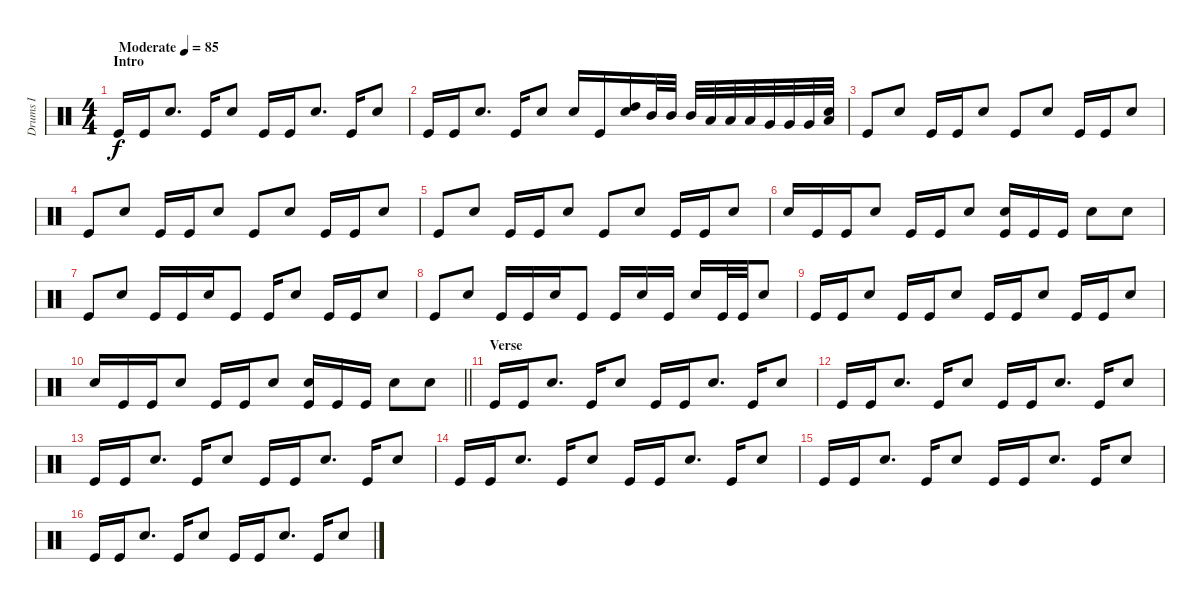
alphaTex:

\track ("Drums I" "Drums I") {instrument percussion}
\staff {score}
\articulation defaults
\ts (4 4)
\section ("" "Intro")
\tempo (85 "Moderate")
\clef neutral
\ks c "Kick (hit)".16{dy f} "Kick (hit)".16 "Electric Snare (hit)".8{d} "Kick (hit)".16 "Electric Snare (hit)".8 "Kick (hit)".16 "Kick (hit)".16 "Electric Snare (hit)".8{d} "Kick (hit)".16 "Electric Snare (hit)".8
|
"Kick (hit)".16 "Kick (hit)".16 "Electric Snare (hit)".8{d} "Kick (hit)".16 "Electric Snare (hit)".8 "Electric Snare (hit)".16 "Kick (hit)".16 ("Electric Snare (hit)" "High Tom (hit)").16 "Mid Tom (hit)".32 "Mid Tom (hit)".32 "Mid Tom (hit)".32 "Low Tom (hit)".32 "Low Tom (hit)".32 "Low Tom (hit)".32 "Very Low Tom (hit)".32 "Very Low Tom (hit)".32 "Very Low Tom (hit)".32 ("Electric Snare (hit)" "Low Tom (hit)").32 |
"Kick (hit)".8 "Electric Snare (hit)".8 "Kick (hit)".16 "Kick (hit)".16 "Electric Snare (hit)".8 "Kick (hit)".8 "Electric Snare (hit)".8 "Kick (hit)".16 "Kick (hit)".16 "Electric Snare (hit)".8 |
"Kick (hit)".8 "Electric Snare (hit)".8 "Kick (hit)".16 "Kick (hit)".16 "Electric Snare (hit)".8 "Kick (hit)".8 "Electric Snare (hit)".8 "Kick (hit)".16 "Kick (hit)".16 "Electric Snare (hit)".8 |
"Kick (hit)".8 "Electric Snare (hit)".8 "Kick (hit)".16 "Kick (hit)".16 "Electric Snare (hit)".8 "Kick (hit)".8 "Electric Snare (hit)".8 "Kick (hit)".16 "Kick (hit)".16 "Electric Snare (hit)".8 |
"Electric Snare (hit)".16 "Kick (hit)".16 "Kick (hit)".16 "Electric Snare (hit)".8 "Kick (hit)".16 "Kick (hit)".16 "Electric Snare (hit)".8 ("Electric Snare (hit)" "Kick (hit)").16 "Kick (hit)".16 "Kick (hit)".16 "Electric Snare (hit)".8 "Electric Snare (hit)".8 |
"Kick (hit)".8 "Electric Snare (hit)".8 "Kick (hit)".16 "Kick (hit)".16 "Electric Snare (hit)".16 "Kick (hit)".8 "Kick (hit)".16 "Electric Snare (hit)".8 "Kick (hit)".16 "Kick (hit)".16 "Electric Snare (hit)".8 |
"Kick (hit)".8 "Electric Snare (hit)".8 "Kick (hit)".16 "Kick (hit)".16 "Electric Snare (hit)".16 "Kick (hit)".8 "Kick (hit)".16 "Electric Snare (hit)".16 "Kick (hit)".16 "Electric Snare (hit)".16 "Kick (hit)".32 "Kick (hit)".32 "Electric Snare (hit)".8 |
"Kick (hit)".16 "Kick (hit)".16 "Electric Snare (hit)".8 "Kick (hit)".16 "Kick (hit)".16 "Electric Snare (hit)".8 "Kick (hit)".16 "Kick (hit)".16 "Electric Snare (hit)".8 "Kick (hit)".16 "Kick (hit)".16 "Electric Snare (hit)".8 |
\barLineRight lightlight "Electric Snare (hit)".16 "Kick (hit)".16 "Kick (hit)".16 "Electric Snare (hit)".8 "Kick (hit)".16 "Kick (hit)".16 "Electric Snare (hit)".8
("Electric Snare (hit)" "Kick (hit)").16 "Kick (hit)".16 "Kick (hit)".16 "Electric Snare (hit)".8 "Electric Snare (hit)".8 |
\section ("" "Verse")
"Kick (hit)".16 "Kick (hit)".16 "Electric Snare (hit)".8{d} "Kick (hit)".16 "Electric Snare (hit)".8 "Kick (hit)".16 "Kick (hit)".16 "Electric Snare (hit)".8{d} "Kick (hit)".16 "Electric Snare (hit)".8 |
"Kick (hit)".16 "Kick (hit)".16 "Electric Snare (hit)".8{d} "Kick (hit)".16 "Electric Snare (hit)".8 "Kick (hit)".16 "Kick (hit)".16 "Electric Snare (hit)".8{d} "Kick (hit)".16 "Electric Snare (hit)".8 |
"Kick (hit)".16 "Kick (hit)".16 "Electric Snare (hit)".8{d} "Kick (hit)".16 "Electric Snare (hit)".8 "Kick (hit)".16 "Kick (hit)".16 "Electric Snare (hit)".8{d} "Kick (hit)".16 "Electric Snare (hit)".8 |
"Kick (hit)".16 "Kick (hit)".16 "Electric Snare (hit)".8{d} "Kick (hit)".16 "Electric Snare (hit)".8 "Kick (hit)".16 "Kick (hit)".16 "Electric Snare (hit)".8{d} "Kick (hit)".16 "Electric Snare (hit)".8 |
"Kick (hit)".16 "Kick (hit)".16 "Electric Snare (hit)".8{d} "Kick (hit)".16 "Electric Snare (hit)".8 "Kick (hit)".16 "Kick (hit)".16 "Electric Snare (hit)".8{d} "Kick (hit)".16 "Electric Snare (hit)".8 |
"Kick (hit)".16 "Kick (hit)".16 "Electric Snare (hit)".8{d} "Kick (hit)".16 "Electric Snare (hit)".8 "Kick (hit)".16 "Kick (hit)".16 "Electric Snare (hit)".8{d} "Kick (hit)".16 "Electric Snare (hit)".8
